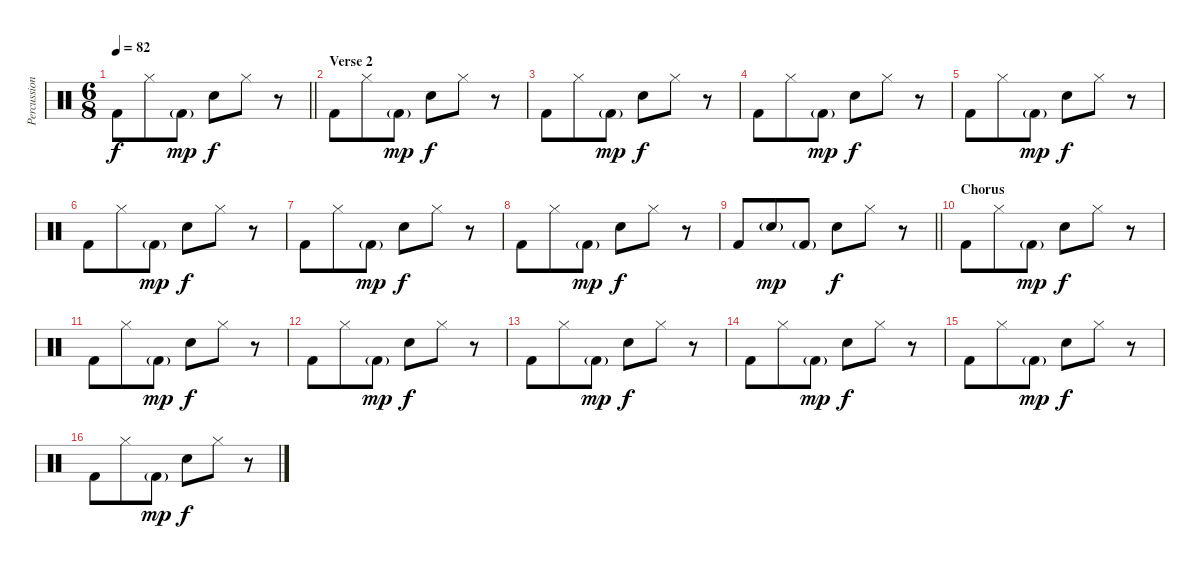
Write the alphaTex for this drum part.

\track ("Percussion" "Percussion") {instrument percussion}
\staff {score}
\articulation defaults
\ts (6 8)
\tempo 82
\clef neutral
\barLineRight lightlight
\ks c "Kick (hit) 2".8{dy f} "Hi-Hat (closed)".8 "Kick (hit) 2"{g}.8{dy mp} "Snare (hit) 2".8{dy f} "Hi-Hat (closed)".8
r.8 |
\section ("" "Verse 2")
"Kick (hit) 2".8 "Hi-Hat (closed)".8 "Kick (hit) 2"{g}.8{dy mp} "Snare (hit) 2".8{dy f} "Hi-Hat (closed)".8 r.8 |
"Kick (hit) 2".8 "Hi-Hat (closed)".8 "Kick (hit) 2"{g}.8{dy mp} "Snare (hit) 2".8{dy f} "Hi-Hat (closed)".8 r.8 |
"Kick (hit) 2".8 "Hi-Hat (closed)".8 "Kick (hit) 2"{g}.8{dy mp} "Snare (hit) 2".8{dy f} "Hi-Hat (closed)".8 r.8 |
"Kick (hit) 2".8 "Hi-Hat (closed)".8 "Kick (hit) 2"{g}.8{dy mp} "Snare (hit) 2".8{dy f} "Hi-Hat (closed)".8 r.8 |
"Kick (hit) 2".8 "Hi-Hat (closed)".8 "Kick (hit) 2"{g}.8{dy mp} "Snare (hit) 2".8{dy f} "Hi-Hat (closed)".8 r.8 |
"Kick (hit) 2".8 "Hi-Hat (closed)".8 "Kick (hit) 2"{g}.8{dy mp} "Snare (hit) 2".8{dy f} "Hi-Hat (closed)".8 r.8 |
"Kick (hit) 2".8 "Hi-Hat (closed)".8 "Kick (hit) 2"{g}.8{dy mp} "Snare (hit) 2".8{dy f} "Hi-Hat (closed)".8 r.8 |
\barLineRight lightlight "Kick (hit) 2".8 "Snare (hit) 2"{g}.8{dy mp} "Kick (hit) 2"{g}.8 "Snare (hit) 2".8{dy f} "Hi-Hat (closed)".8
r.8 |
\section ("" "Chorus")
"Kick (hit) 2".8 "Hi-Hat (closed)".8 "Kick (hit) 2"{g}.8{dy mp} "Snare (hit) 2".8{dy f} "Hi-Hat (closed)".8 r.8 |
"Kick (hit) 2".8 "Hi-Hat (closed)".8 "Kick (hit) 2"{g}.8{dy mp} "Snare (hit) 2".8{dy f} "Hi-Hat (closed)".8 r.8 |
"Kick (hit) 2".8 "Hi-Hat (closed)".8 "Kick (hit) 2"{g}.8{dy mp} "Snare (hit) 2".8{dy f} "Hi-Hat (closed)".8 r.8 |
"Kick (hit) 2".8 "Hi-Hat (closed)".8 "Kick (hit) 2"{g}.8{dy mp} "Snare (hit) 2".8{dy f} "Hi-Hat (closed)".8 r.8 |
"Kick (hit) 2".8 "Hi-Hat (closed)".8 "Kick (hit) 2"{g}.8{dy mp} "Snare (hit) 2".8{dy f} "Hi-Hat (closed)".8 r.8 |
"Kick (hit) 2".8 "Hi-Hat (closed)".8 "Kick (hit) 2"{g}.8{dy mp} "Snare (hit) 2".8{dy f} "Hi-Hat (closed)".8 r.8 |
"Kick (hit) 2".8 "Hi-Hat (closed)".8 "Kick (hit) 2"{g}.8{dy mp} "Snare (hit) 2".8{dy f} "Hi-Hat (closed)".8 r.8
